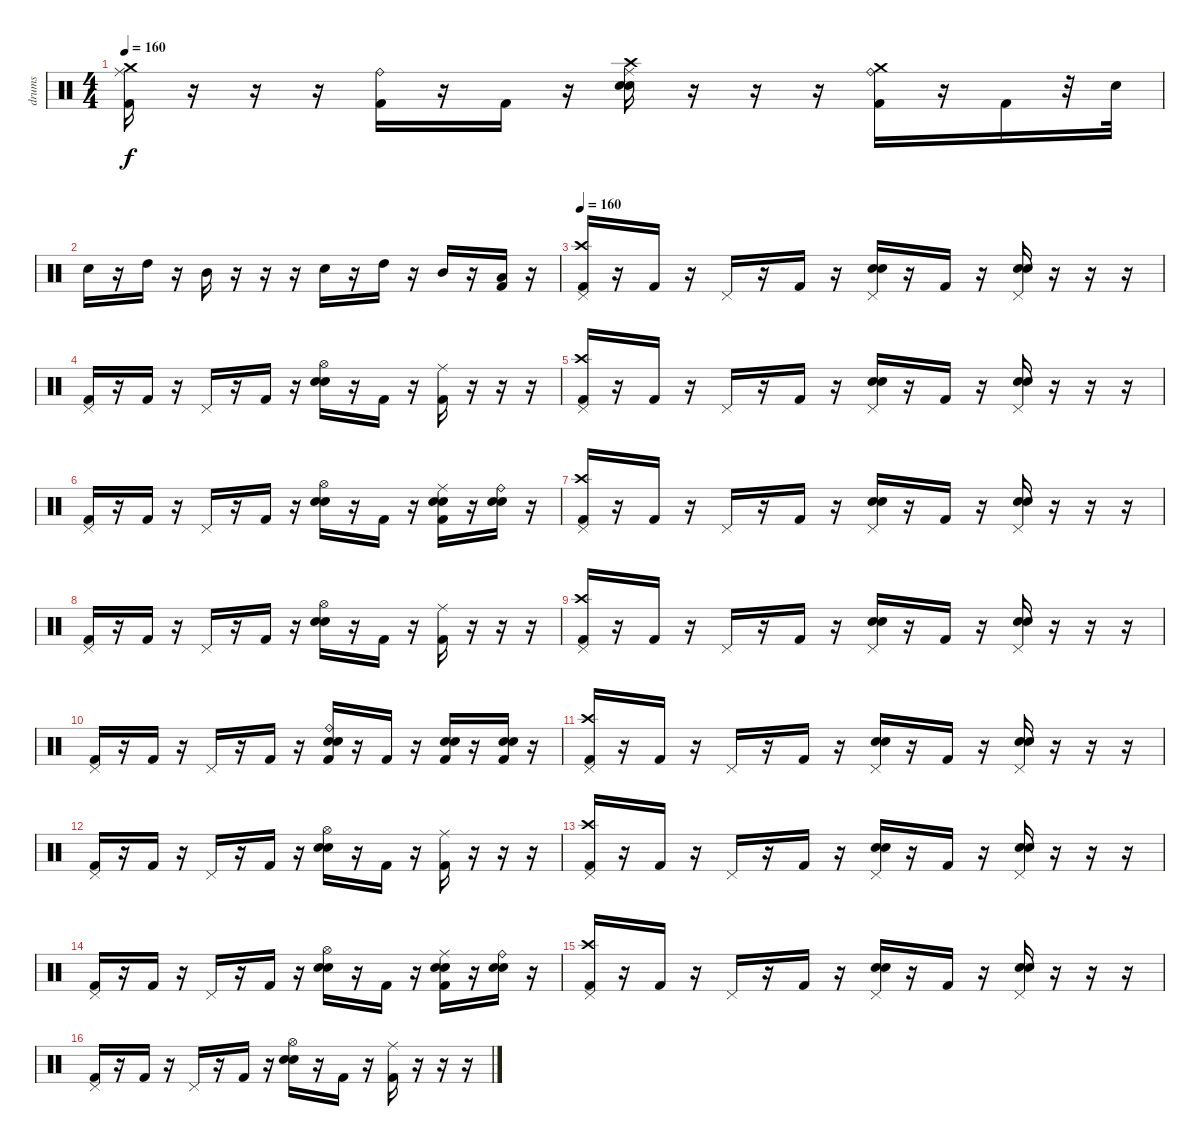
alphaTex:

\track ("drums" "drums") {instrument percussion}
\staff {score}
\articulation defaults
\ts (4 4)
\tempo 160
\clef neutral
\ks c
("Crash medium (hit)" "Ride (middle)" "Kick (hit) 2").16{dy f} r.16 r.16 r.16 ("Ride (bell)" "Kick (hit) 2").16 r.16 "Kick (hit) 2".16 r.16 ("Crash high (hit)" "Ride (middle)" "Electric Snare (hit)" "Snare (hit) 2").16 r.16 r.16 r.16 ("Crash medium (hit)" "Ride (bell)" "Kick (hit) 2").16 r.16 "Kick (hit) 2".16 r.32 "Electric Snare (hit)".32 |
"Electric Snare (hit)".16 r.16 "High Tom (hit)".16 r.16 "Mid Tom (hit)".16 r.16 r.16 r.16 "Electric Snare (hit)".16 r.16 "High Tom (hit)".16 r.16 "Mid Tom (hit)".16 r.16 ("Low Tom (hit)" "Kick (hit) 2").16 r.16 |
\tempo 160
("Crash high (hit)" "Pedal Hi-Hat (hit)" "Kick (hit) 2").16 r.16 "Kick (hit) 2".16 r.16 "Pedal Hi-Hat (hit)".16 r.16 "Kick (hit) 2".16 r.16 ("Pedal Hi-Hat (hit)" "Electric Snare (hit)" "Snare (hit) 2").16 r.16 "Kick (hit) 2".16 r.16 ("Pedal Hi-Hat (hit)" "Electric Snare (hit)" "Snare (hit) 2").16 r.16 r.16 r.16 |
("Pedal Hi-Hat (hit)" "Kick (hit) 2").16 r.16 "Kick (hit) 2".16 r.16 "Pedal Hi-Hat (hit)".16 r.16 "Kick (hit) 2".16 r.16 ("Hi-Hat (open)" "Electric Snare (hit)" "Snare (hit) 2").16 r.16 "Kick (hit) 2".16 r.16 ("Ride (middle)" "Kick (hit) 2").16 r.16 r.16 r.16 |
("Crash high (hit)" "Pedal Hi-Hat (hit)" "Kick (hit) 2").16 r.16 "Kick (hit) 2".16 r.16 "Pedal Hi-Hat (hit)".16 r.16 "Kick (hit) 2".16 r.16 ("Pedal Hi-Hat (hit)" "Electric Snare (hit)" "Snare (hit) 2").16 r.16 "Kick (hit) 2".16 r.16 ("Pedal Hi-Hat (hit)" "Electric Snare (hit)" "Snare (hit) 2").16 r.16 r.16 r.16 |
("Pedal Hi-Hat (hit)" "Kick (hit) 2").16 r.16 "Kick (hit) 2".16 r.16 "Pedal Hi-Hat (hit)".16 r.16 "Kick (hit) 2".16 r.16 ("Hi-Hat (open)" "Electric Snare (hit)" "Snare (hit) 2").16 r.16 "Kick (hit) 2".16 r.16 ("Ride (middle)" "Electric Snare (hit)" "Snare (hit) 2" "Kick (hit) 2").16 r.16 ("Ride (bell)" "Electric Snare (hit)" "Snare (hit) 2").16 r.16 |
("Crash high (hit)" "Pedal Hi-Hat (hit)" "Kick (hit) 2").16 r.16 "Kick (hit) 2".16 r.16 "Pedal Hi-Hat (hit)".16 r.16 "Kick (hit) 2".16 r.16 ("Pedal Hi-Hat (hit)" "Electric Snare (hit)" "Snare (hit) 2").16 r.16 "Kick (hit) 2".16 r.16 ("Pedal Hi-Hat (hit)" "Electric Snare (hit)" "Snare (hit) 2").16 r.16 r.16 r.16 |
("Pedal Hi-Hat (hit)" "Kick (hit) 2").16 r.16 "Kick (hit) 2".16 r.16 "Pedal Hi-Hat (hit)".16 r.16 "Kick (hit) 2".16 r.16 ("Hi-Hat (open)" "Electric Snare (hit)" "Snare (hit) 2").16 r.16 "Kick (hit) 2".16 r.16 ("Ride (middle)" "Kick (hit) 2").16 r.16 r.16 r.16 |
("Crash high (hit)" "Pedal Hi-Hat (hit)" "Kick (hit) 2").16 r.16 "Kick (hit) 2".16 r.16 "Pedal Hi-Hat (hit)".16 r.16 "Kick (hit) 2".16 r.16 ("Pedal Hi-Hat (hit)" "Electric Snare (hit)" "Snare (hit) 2").16 r.16 "Kick (hit) 2".16 r.16 ("Pedal Hi-Hat (hit)" "Electric Snare (hit)" "Snare (hit) 2").16 r.16 r.16 r.16 |
("Pedal Hi-Hat (hit)" "Kick (hit) 2").16 r.16 "Kick (hit) 2".16 r.16 "Pedal Hi-Hat (hit)".16 r.16 "Kick (hit) 2".16 r.16 ("Ride (bell)" "Electric Snare (hit)" "Snare (hit) 2" "Kick (hit) 2").16 r.16 "Kick (hit) 2".16 r.16 ("Electric Snare (hit)" "Snare (hit) 2" "Kick (hit) 2").16 r.16 ("Electric Snare (hit)" "Snare (hit) 2" "Kick (hit) 2").16 r.16 |
("Crash high (hit)" "Pedal Hi-Hat (hit)" "Kick (hit) 2").16 r.16 "Kick (hit) 2".16 r.16 "Pedal Hi-Hat (hit)".16 r.16 "Kick (hit) 2".16 r.16 ("Pedal Hi-Hat (hit)" "Electric Snare (hit)" "Snare (hit) 2").16 r.16 "Kick (hit) 2".16 r.16 ("Pedal Hi-Hat (hit)" "Electric Snare (hit)" "Snare (hit) 2").16 r.16 r.16 r.16 |
("Pedal Hi-Hat (hit)" "Kick (hit) 2").16 r.16 "Kick (hit) 2".16 r.16 "Pedal Hi-Hat (hit)".16 r.16 "Kick (hit) 2".16 r.16 ("Hi-Hat (open)" "Electric Snare (hit)" "Snare (hit) 2").16 r.16 "Kick (hit) 2".16 r.16 ("Ride (middle)" "Kick (hit) 2").16 r.16 r.16 r.16 |
("Crash high (hit)" "Pedal Hi-Hat (hit)" "Kick (hit) 2").16 r.16 "Kick (hit) 2".16 r.16 "Pedal Hi-Hat (hit)".16 r.16 "Kick (hit) 2".16 r.16 ("Pedal Hi-Hat (hit)" "Electric Snare (hit)" "Snare (hit) 2").16 r.16 "Kick (hit) 2".16 r.16 ("Pedal Hi-Hat (hit)" "Electric Snare (hit)" "Snare (hit) 2").16 r.16 r.16 r.16 |
("Pedal Hi-Hat (hit)" "Kick (hit) 2").16 r.16 "Kick (hit) 2".16 r.16 "Pedal Hi-Hat (hit)".16 r.16 "Kick (hit) 2".16 r.16 ("Hi-Hat (open)" "Electric Snare (hit)" "Snare (hit) 2").16 r.16 "Kick (hit) 2".16 r.16 ("Ride (middle)" "Electric Snare (hit)" "Snare (hit) 2" "Kick (hit) 2").16 r.16 ("Ride (bell)" "Electric Snare (hit)" "Snare (hit) 2").16 r.16 |
("Crash high (hit)" "Pedal Hi-Hat (hit)" "Kick (hit) 2").16 r.16 "Kick (hit) 2".16 r.16 "Pedal Hi-Hat (hit)".16 r.16 "Kick (hit) 2".16 r.16 ("Pedal Hi-Hat (hit)" "Electric Snare (hit)" "Snare (hit) 2").16 r.16 "Kick (hit) 2".16 r.16 ("Pedal Hi-Hat (hit)" "Electric Snare (hit)" "Snare (hit) 2").16 r.16 r.16 r.16 |
("Pedal Hi-Hat (hit)" "Kick (hit) 2").16 r.16 "Kick (hit) 2".16 r.16 "Pedal Hi-Hat (hit)".16 r.16 "Kick (hit) 2".16 r.16 ("Hi-Hat (open)" "Electric Snare (hit)" "Snare (hit) 2").16 r.16 "Kick (hit) 2".16 r.16 ("Ride (middle)" "Kick (hit) 2").16 r.16 r.16 r.16
